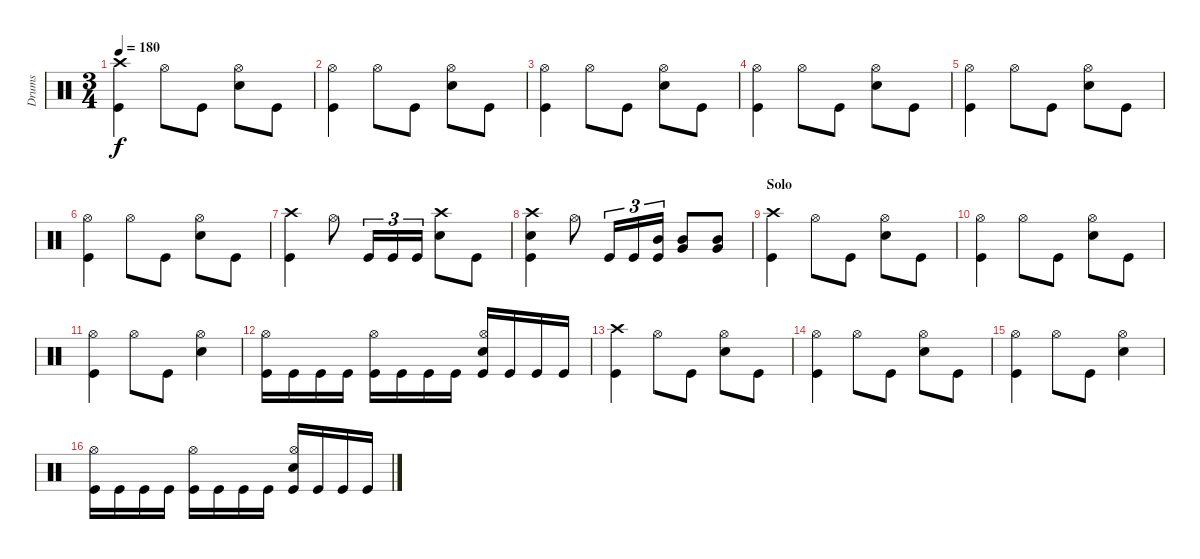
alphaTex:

\track ("Drums" "Drums") {instrument percussion}
\staff {score}
\articulation defaults
\ts (3 4)
\tempo 180
\clef neutral
\ks c
("Crash high (hit)" "Kick (hit)").4{dy f} "Hi-Hat (open)".8 "Kick (hit)".8 ("Hi-Hat (open)" "Snare (hit) 2").8 "Kick (hit)".8 |
("Hi-Hat (open)" "Kick (hit)").4 "Hi-Hat (open)".8 "Kick (hit)".8 ("Hi-Hat (open)" "Snare (hit) 2").8 "Kick (hit)".8 |
("Hi-Hat (open)" "Kick (hit)").4 "Hi-Hat (open)".8 "Kick (hit)".8 ("Hi-Hat (open)" "Snare (hit) 2").8 "Kick (hit)".8 |
("Hi-Hat (open)" "Kick (hit)").4 "Hi-Hat (open)".8 "Kick (hit)".8 ("Hi-Hat (open)" "Snare (hit) 2").8 "Kick (hit)".8 |
("Hi-Hat (open)" "Kick (hit)").4 "Hi-Hat (open)".8 "Kick (hit)".8 ("Hi-Hat (open)" "Snare (hit) 2").8 "Kick (hit)".8 |
("Hi-Hat (open)" "Kick (hit)").4 "Hi-Hat (open)".8 "Kick (hit)".8 ("Hi-Hat (open)" "Snare (hit) 2").8 "Kick (hit)".8 |
("Crash high (hit)" "Kick (hit)").4 "Hi-Hat (open)".8 "Kick (hit)".16{tu (3 2)} "Kick (hit)".16{tu (3 2)} "Kick (hit)".16{tu (3 2)} ("Crash high (hit)" "Snare (hit) 2").8 "Kick (hit)".8 |
("Crash high (hit)" "Snare (hit) 2" "Kick (hit)").4 "Hi-Hat (open)".8 "Kick (hit)".16{tu (3 2)} "Kick (hit)".16{tu (3 2)} ("Mid Tom (hit)" "Kick (hit)").16{tu (3 2)} ("Mid Tom (hit)" "Very Low Tom (hit)").8 ("Mid Tom (hit)" "Very Low Tom (hit)").8 |
\section ("" "Solo")
("Crash high (hit)" "Kick (hit)").4 "Hi-Hat (open)".8 "Kick (hit)".8 ("Hi-Hat (open)" "Snare (hit) 2").8 "Kick (hit)".8 |
("Hi-Hat (open)" "Kick (hit)").4 "Hi-Hat (open)".8 "Kick (hit)".8 ("Hi-Hat (open)" "Snare (hit) 2").8 "Kick (hit)".8 |
("Hi-Hat (open)" "Kick (hit)").4 "Hi-Hat (open)".8 "Kick (hit)".8 ("Hi-Hat (open)" "Snare (hit) 2").4 |
("Hi-Hat (open)" "Kick (hit)").16 "Kick (hit)".16 "Kick (hit)".16 "Kick (hit)".16 ("Hi-Hat (open)" "Kick (hit)").16 "Kick (hit)".16 "Kick (hit)".16 "Kick (hit)".16 ("Hi-Hat (open)" "Snare (hit) 2" "Kick (hit)").16 "Kick (hit)".16 "Kick (hit)".16 "Kick (hit)".16 |
("Crash high (hit)" "Kick (hit)").4 "Hi-Hat (open)".8 "Kick (hit)".8 ("Hi-Hat (open)" "Snare (hit) 2").8 "Kick (hit)".8 |
("Hi-Hat (open)" "Kick (hit)").4 "Hi-Hat (open)".8 "Kick (hit)".8 ("Hi-Hat (open)" "Snare (hit) 2").8 "Kick (hit)".8 |
("Hi-Hat (open)" "Kick (hit)").4 "Hi-Hat (open)".8 "Kick (hit)".8 ("Hi-Hat (open)" "Snare (hit) 2").4 |
("Hi-Hat (open)" "Kick (hit)").16 "Kick (hit)".16 "Kick (hit)".16 "Kick (hit)".16 ("Hi-Hat (open)" "Kick (hit)").16 "Kick (hit)".16 "Kick (hit)".16 "Kick (hit)".16 ("Hi-Hat (open)" "Snare (hit) 2" "Kick (hit)").16 "Kick (hit)".16 "Kick (hit)".16 "Kick (hit)".16
